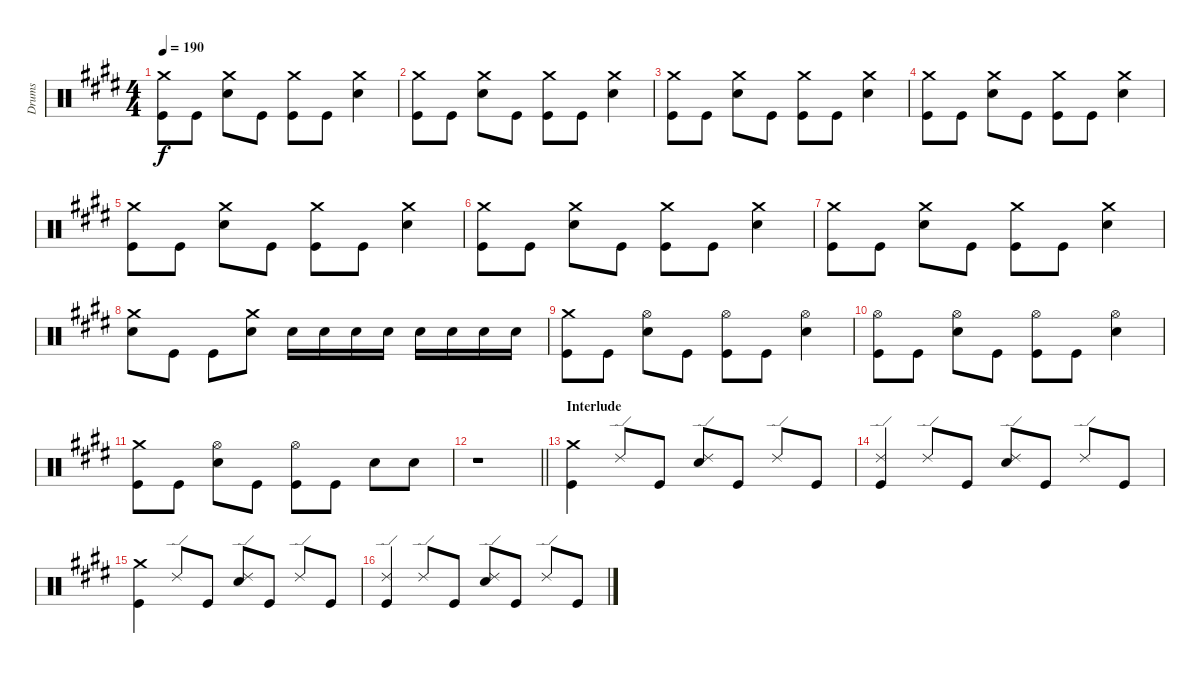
\track ("Drums" "Drums") {instrument percussion}
\staff {score}
\articulation defaults
\ts (4 4)
\tempo 190
\clef neutral
\ks e
("Kick (hit)" "Crash medium (hit)").8{dy f} "Kick (hit)".8 ("Snare (hit) 2" "Crash medium (hit)").8 "Kick (hit)".8 ("Kick (hit)" "Crash medium (hit)").8 "Kick (hit)".8 ("Snare (hit) 2" "Crash medium (hit)").4 |
("Kick (hit)" "Crash medium (hit)").8 "Kick (hit)".8 ("Snare (hit) 2" "Crash medium (hit)").8 "Kick (hit)".8 ("Kick (hit)" "Crash medium (hit)").8 "Kick (hit)".8 ("Snare (hit) 2" "Crash medium (hit)").4 |
("Kick (hit)" "Crash medium (hit)").8 "Kick (hit)".8 ("Snare (hit) 2" "Crash medium (hit)").8 "Kick (hit)".8 ("Kick (hit)" "Crash medium (hit)").8 "Kick (hit)".8 ("Snare (hit) 2" "Crash medium (hit)").4 |
("Kick (hit)" "Crash medium (hit)").8 "Kick (hit)".8 ("Snare (hit) 2" "Crash medium (hit)").8 "Kick (hit)".8 ("Kick (hit)" "Crash medium (hit)").8 "Kick (hit)".8 ("Snare (hit) 2" "Crash medium (hit)").4 |
("Kick (hit)" "Crash medium (hit)").8 "Kick (hit)".8 ("Snare (hit) 2" "Crash medium (hit)").8 "Kick (hit)".8 ("Kick (hit)" "Crash medium (hit)").8 "Kick (hit)".8 ("Snare (hit) 2" "Crash medium (hit)").4 |
("Kick (hit)" "Crash medium (hit)").8 "Kick (hit)".8 ("Snare (hit) 2" "Crash medium (hit)").8 "Kick (hit)".8 ("Kick (hit)" "Crash medium (hit)").8 "Kick (hit)".8 ("Snare (hit) 2" "Crash medium (hit)").4 |
("Kick (hit)" "Crash medium (hit)").8 "Kick (hit)".8 ("Snare (hit) 2" "Crash medium (hit)").8 "Kick (hit)".8 ("Kick (hit)" "Crash medium (hit)").8 "Kick (hit)".8 ("Snare (hit) 2" "Crash medium (hit)").4 |
("Snare (hit) 2" "Crash medium (hit)").8 "Kick (hit)".8 "Kick (hit)".8 ("Snare (hit) 2" "Crash medium (hit)").8 "Snare (hit) 2".16 "Snare (hit) 2".16 "Snare (hit) 2".16 "Snare (hit) 2".16 "Snare (hit) 2".16 "Snare (hit) 2".16 "Snare (hit) 2".16 "Snare (hit) 2".16 |
("Kick (hit)" "Crash medium (hit)").8 "Kick (hit)".8 ("Snare (hit) 2" "Hi-Hat (open)").8 "Kick (hit)".8 ("Kick (hit)" "Hi-Hat (open)").8 "Kick (hit)".8 ("Snare (hit) 2" "Hi-Hat (open)").4 |
("Kick (hit)" "Hi-Hat (open)").8 "Kick (hit)".8 ("Snare (hit) 2" "Hi-Hat (open)").8 "Kick (hit)".8 ("Kick (hit)" "Hi-Hat (open)").8 "Kick (hit)".8 ("Snare (hit) 2" "Hi-Hat (open)").4 |
("Kick (hit)" "Crash medium (hit)").8 "Kick (hit)".8 ("Snare (hit) 2" "Hi-Hat (open)").8 "Kick (hit)".8 ("Kick (hit)" "Hi-Hat (open)").8 "Kick (hit)".8 "Snare (hit) 2".8 "Snare (hit) 2".8 |
\barLineRight lightlight
r.1 |
\section ("" "Interlude")
("Kick (hit)" "Crash medium (hit)").4 "Ride (edge) 2".8 "Kick (hit)".8 ("Snare (hit) 2" "Ride (edge) 2").8 "Kick (hit)".8 "Ride (edge) 2".8 "Kick (hit)".8 |
("Kick (hit)" "Ride (edge) 2").4 "Ride (edge) 2".8 "Kick (hit)".8 ("Snare (hit) 2" "Ride (edge) 2").8 "Kick (hit)".8 "Ride (edge) 2".8 "Kick (hit)".8 |
("Kick (hit)" "Crash medium (hit)").4 "Ride (edge) 2".8 "Kick (hit)".8 ("Snare (hit) 2" "Ride (edge) 2").8 "Kick (hit)".8 "Ride (edge) 2".8 "Kick (hit)".8 |
("Kick (hit)" "Ride (edge) 2").4 "Ride (edge) 2".8 "Kick (hit)".8 ("Snare (hit) 2" "Ride (edge) 2").8 "Kick (hit)".8 "Ride (edge) 2".8 "Kick (hit)".8
